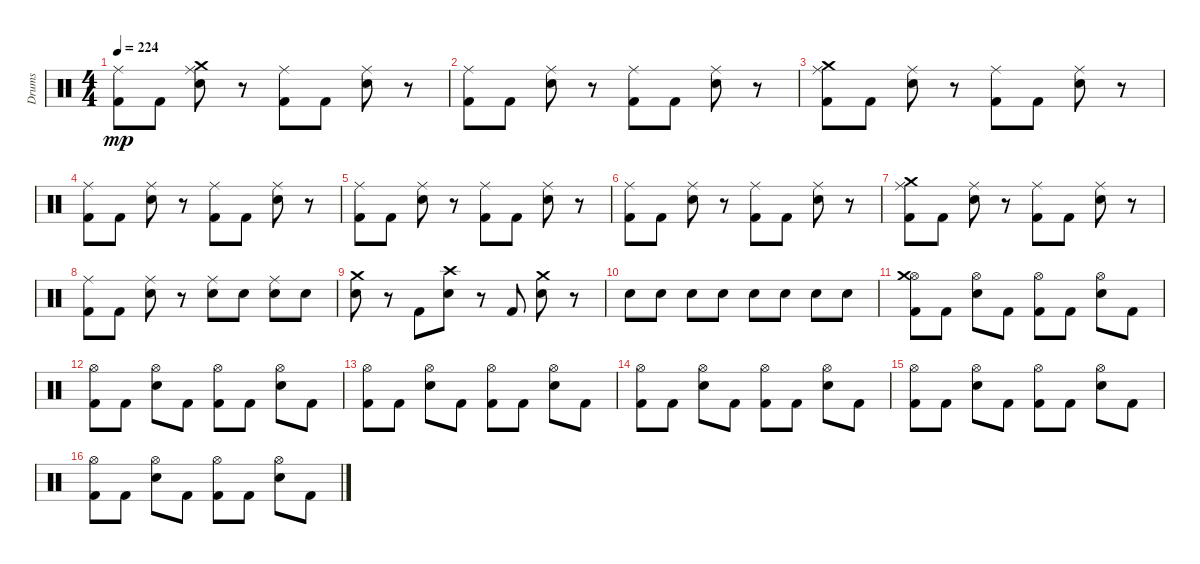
\track ("Drums" "Drums") {instrument percussion}
\staff {score}
\articulation defaults
\ts (4 4)
\tempo 224
\clef neutral
\ks c
("Kick (hit) 2" "Ride (middle)").8{dy mp} "Kick (hit) 2".8 ("Electric Snare (hit)" "Ride (middle)" "Crash medium (hit)").8 r.8 ("Ride (middle)" "Kick (hit) 2").8 "Kick (hit) 2".8 ("Electric Snare (hit)" "Ride (middle)").8 r.8 |
("Kick (hit) 2" "Ride (middle)").8 "Kick (hit) 2".8 ("Electric Snare (hit)" "Ride (middle)").8 r.8 ("Kick (hit) 2" "Ride (middle)").8 "Kick (hit) 2".8 ("Ride (middle)" "Electric Snare (hit)").8 r.8 |
("Ride (middle)" "Crash medium (hit)" "Kick (hit) 2").8 "Kick (hit) 2".8 ("Electric Snare (hit)" "Ride (middle)").8 r.8 ("Kick (hit) 2" "Ride (middle)").8 "Kick (hit) 2".8 ("Ride (middle)" "Electric Snare (hit)").8 r.8 |
("Kick (hit) 2" "Ride (middle)").8 "Kick (hit) 2".8 ("Electric Snare (hit)" "Ride (middle)").8 r.8 ("Kick (hit) 2" "Ride (middle)").8 "Kick (hit) 2".8 ("Electric Snare (hit)" "Ride (middle)").8 r.8 |
("Ride (middle)" "Kick (hit) 2").8 "Kick (hit) 2".8 ("Ride (middle)" "Electric Snare (hit)").8 r.8 ("Ride (middle)" "Kick (hit) 2").8 "Kick (hit) 2".8 ("Electric Snare (hit)" "Ride (middle)").8 r.8 |
("Ride (middle)" "Kick (hit) 2").8 "Kick (hit) 2".8 ("Ride (middle)" "Electric Snare (hit)").8 r.8 ("Ride (middle)" "Kick (hit) 2").8 "Kick (hit) 2".8 ("Electric Snare (hit)" "Ride (middle)").8 r.8 |
("Ride (middle)" "Crash medium (hit)" "Kick (hit) 2").8 "Kick (hit) 2".8 ("Electric Snare (hit)" "Ride (middle)").8 r.8 ("Ride (middle)" "Kick (hit) 2").8 "Kick (hit) 2".8 ("Electric Snare (hit)" "Ride (middle)").8 r.8 |
("Kick (hit) 2" "Ride (middle)").8 "Kick (hit) 2".8 ("Electric Snare (hit)" "Ride (middle)").8 r.8 ("Ride (middle)" "Electric Snare (hit)").8 "Electric Snare (hit)".8 ("Ride (middle)" "Electric Snare (hit)").8 "Electric Snare (hit)".8 |
("Crash medium (hit)" "Electric Snare (hit)").8 r.8 "Kick (hit) 2".8 ("Electric Snare (hit)" "Crash high (hit)").8 r.8 "Kick (hit) 2".8 ("Electric Snare (hit)" "Crash medium (hit)").8 r.8 |
"Electric Snare (hit)".8 "Electric Snare (hit)".8 "Electric Snare (hit)".8 "Electric Snare (hit)".8 "Electric Snare (hit)".8 "Electric Snare (hit)".8 "Electric Snare (hit)".8 "Electric Snare (hit)".8 |
("Hi-Hat (open)" "Crash medium (hit)" "Kick (hit) 2").8 "Kick (hit) 2".8 ("Electric Snare (hit)" "Hi-Hat (open)").8 "Kick (hit) 2".8 ("Hi-Hat (open)" "Kick (hit) 2").8 "Kick (hit) 2".8 ("Electric Snare (hit)" "Hi-Hat (open)").8 "Kick (hit) 2".8 |
("Kick (hit) 2" "Hi-Hat (open)").8 "Kick (hit) 2".8 ("Hi-Hat (open)" "Electric Snare (hit)").8 "Kick (hit) 2".8 ("Kick (hit) 2" "Hi-Hat (open)").8 "Kick (hit) 2".8 ("Electric Snare (hit)" "Hi-Hat (open)").8 "Kick (hit) 2".8 |
("Kick (hit) 2" "Hi-Hat (open)").8 "Kick (hit) 2".8 ("Electric Snare (hit)" "Hi-Hat (open)").8 "Kick (hit) 2".8 ("Kick (hit) 2" "Hi-Hat (open)").8 "Kick (hit) 2".8 ("Hi-Hat (open)" "Electric Snare (hit)").8 "Kick (hit) 2".8 |
("Hi-Hat (open)" "Kick (hit) 2").8 "Kick (hit) 2".8 ("Electric Snare (hit)" "Hi-Hat (open)").8 "Kick (hit) 2".8 ("Hi-Hat (open)" "Kick (hit) 2").8 "Kick (hit) 2".8 ("Hi-Hat (open)" "Electric Snare (hit)").8 "Kick (hit) 2".8 |
("Hi-Hat (open)" "Kick (hit) 2").8 "Kick (hit) 2".8 ("Hi-Hat (open)" "Electric Snare (hit)").8 "Kick (hit) 2".8 ("Hi-Hat (open)" "Kick (hit) 2").8 "Kick (hit) 2".8 ("Electric Snare (hit)" "Hi-Hat (open)").8 "Kick (hit) 2".8 |
("Kick (hit) 2" "Hi-Hat (open)").8 "Kick (hit) 2".8 ("Hi-Hat (open)" "Electric Snare (hit)").8 "Kick (hit) 2".8 ("Hi-Hat (open)" "Kick (hit) 2").8 "Kick (hit) 2".8 ("Hi-Hat (open)" "Electric Snare (hit)").8 "Kick (hit) 2".8
